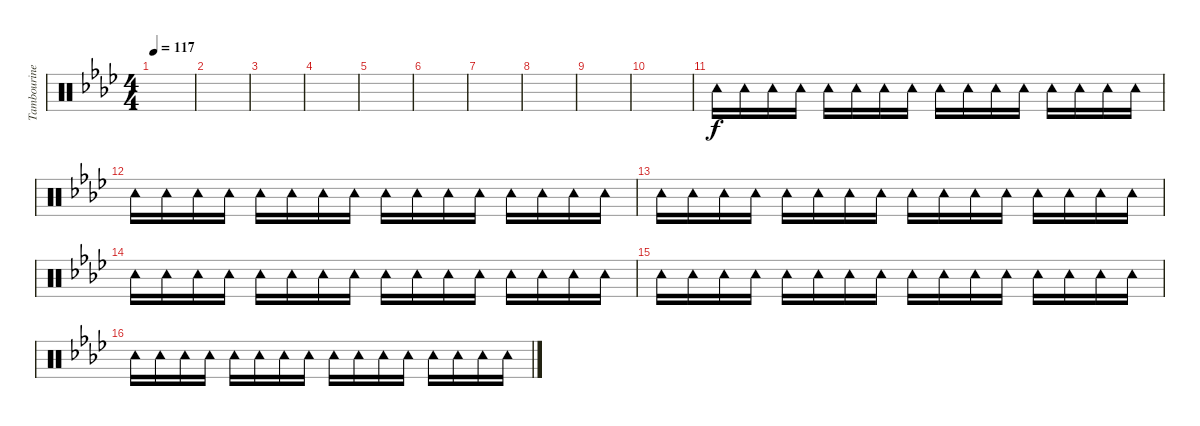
\track ("Tambourine" "Tambourine") {instrument percussion}
\staff {score}
\articulation defaults
\ts (4 4)
\tempo 117
\clef neutral
\ks ab
|
|
|
|
|
|
|
|
|
|
"Tambourine (hit)".16 "Tambourine (hit)".16 "Tambourine (hit)".16 "Tambourine (hit)".16 "Tambourine (hit)".16 "Tambourine (hit)".16 "Tambourine (hit)".16 "Tambourine (hit)".16 "Tambourine (hit)".16 "Tambourine (hit)".16 "Tambourine (hit)".16 "Tambourine (hit)".16 "Tambourine (hit)".16 "Tambourine (hit)".16 "Tambourine (hit)".16 "Tambourine (hit)".16 |
"Tambourine (hit)".16 "Tambourine (hit)".16 "Tambourine (hit)".16 "Tambourine (hit)".16 "Tambourine (hit)".16 "Tambourine (hit)".16 "Tambourine (hit)".16 "Tambourine (hit)".16 "Tambourine (hit)".16 "Tambourine (hit)".16 "Tambourine (hit)".16 "Tambourine (hit)".16 "Tambourine (hit)".16 "Tambourine (hit)".16 "Tambourine (hit)".16 "Tambourine (hit)".16 |
"Tambourine (hit)".16 "Tambourine (hit)".16 "Tambourine (hit)".16 "Tambourine (hit)".16 "Tambourine (hit)".16 "Tambourine (hit)".16 "Tambourine (hit)".16 "Tambourine (hit)".16 "Tambourine (hit)".16 "Tambourine (hit)".16 "Tambourine (hit)".16 "Tambourine (hit)".16 "Tambourine (hit)".16 "Tambourine (hit)".16 "Tambourine (hit)".16 "Tambourine (hit)".16 |
"Tambourine (hit)".16 "Tambourine (hit)".16 "Tambourine (hit)".16 "Tambourine (hit)".16 "Tambourine (hit)".16 "Tambourine (hit)".16 "Tambourine (hit)".16 "Tambourine (hit)".16 "Tambourine (hit)".16 "Tambourine (hit)".16 "Tambourine (hit)".16 "Tambourine (hit)".16 "Tambourine (hit)".16 "Tambourine (hit)".16 "Tambourine (hit)".16 "Tambourine (hit)".16 |
"Tambourine (hit)".16 "Tambourine (hit)".16 "Tambourine (hit)".16 "Tambourine (hit)".16 "Tambourine (hit)".16 "Tambourine (hit)".16 "Tambourine (hit)".16 "Tambourine (hit)".16 "Tambourine (hit)".16 "Tambourine (hit)".16 "Tambourine (hit)".16 "Tambourine (hit)".16 "Tambourine (hit)".16 "Tambourine (hit)".16 "Tambourine (hit)".16 "Tambourine (hit)".16 |
"Tambourine (hit)".16 "Tambourine (hit)".16 "Tambourine (hit)".16 "Tambourine (hit)".16 "Tambourine (hit)".16 "Tambourine (hit)".16 "Tambourine (hit)".16 "Tambourine (hit)".16 "Tambourine (hit)".16 "Tambourine (hit)".16 "Tambourine (hit)".16 "Tambourine (hit)".16 "Tambourine (hit)".16 "Tambourine (hit)".16 "Tambourine (hit)".16 "Tambourine (hit)".16
